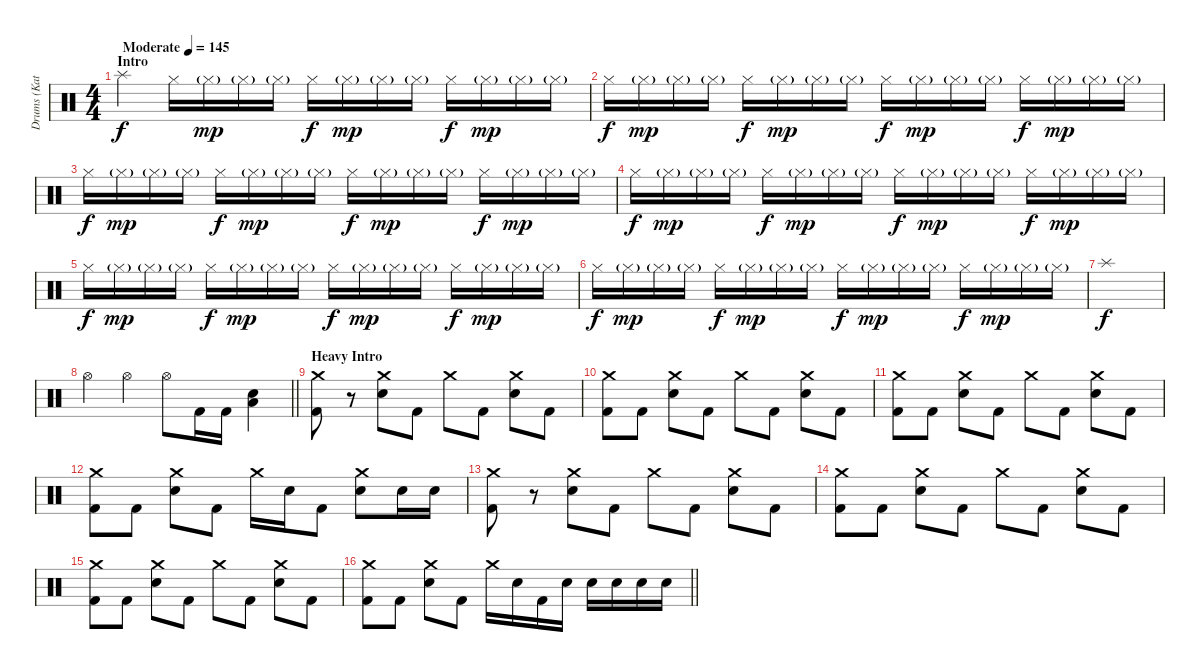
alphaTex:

\track ("Drums (Katsuma)" "Drums (Kat") {instrument percussion}
\staff {score}
\articulation defaults
\ts (4 4)
\section ("" "Intro")
\tempo (145 "Moderate")
\clef neutral
\ks c "Splash (hit)".4{dy f} "Hi-Hat (closed)".16 "Hi-Hat (closed)"{g}.16{dy mp} "Hi-Hat (closed)"{g}.16 "Hi-Hat (closed)"{g}.16 "Hi-Hat (closed)".16{dy f} "Hi-Hat (closed)"{g}.16{dy mp} "Hi-Hat (closed)"{g}.16 "Hi-Hat (closed)"{g}.16 "Hi-Hat (closed)".16{dy f} "Hi-Hat (closed)"{g}.16{dy mp} "Hi-Hat (closed)"{g}.16 "Hi-Hat (closed)"{g}.16
|
"Hi-Hat (closed)".16{dy f} "Hi-Hat (closed)"{g}.16{dy mp} "Hi-Hat (closed)"{g}.16 "Hi-Hat (closed)"{g}.16 "Hi-Hat (closed)".16{dy f} "Hi-Hat (closed)"{g}.16{dy mp} "Hi-Hat (closed)"{g}.16 "Hi-Hat (closed)"{g}.16 "Hi-Hat (closed)".16{dy f} "Hi-Hat (closed)"{g}.16{dy mp} "Hi-Hat (closed)"{g}.16 "Hi-Hat (closed)"{g}.16 "Hi-Hat (closed)".16{dy f} "Hi-Hat (closed)"{g}.16{dy mp} "Hi-Hat (closed)"{g}.16 "Hi-Hat (closed)"{g}.16 |
"Hi-Hat (closed)".16{dy f} "Hi-Hat (closed)"{g}.16{dy mp} "Hi-Hat (closed)"{g}.16 "Hi-Hat (closed)"{g}.16 "Hi-Hat (closed)".16{dy f} "Hi-Hat (closed)"{g}.16{dy mp} "Hi-Hat (closed)"{g}.16 "Hi-Hat (closed)"{g}.16 "Hi-Hat (closed)".16{dy f} "Hi-Hat (closed)"{g}.16{dy mp} "Hi-Hat (closed)"{g}.16 "Hi-Hat (closed)"{g}.16 "Hi-Hat (closed)".16{dy f} "Hi-Hat (closed)"{g}.16{dy mp} "Hi-Hat (closed)"{g}.16 "Hi-Hat (closed)"{g}.16 |
"Hi-Hat (closed)".16{dy f} "Hi-Hat (closed)"{g}.16{dy mp} "Hi-Hat (closed)"{g}.16 "Hi-Hat (closed)"{g}.16 "Hi-Hat (closed)".16{dy f} "Hi-Hat (closed)"{g}.16{dy mp} "Hi-Hat (closed)"{g}.16 "Hi-Hat (closed)"{g}.16 "Hi-Hat (closed)".16{dy f} "Hi-Hat (closed)"{g}.16{dy mp} "Hi-Hat (closed)"{g}.16 "Hi-Hat (closed)"{g}.16 "Hi-Hat (closed)".16{dy f} "Hi-Hat (closed)"{g}.16{dy mp} "Hi-Hat (closed)"{g}.16 "Hi-Hat (closed)"{g}.16 |
"Hi-Hat (closed)".16{dy f} "Hi-Hat (closed)"{g}.16{dy mp} "Hi-Hat (closed)"{g}.16 "Hi-Hat (closed)"{g}.16 "Hi-Hat (closed)".16{dy f} "Hi-Hat (closed)"{g}.16{dy mp} "Hi-Hat (closed)"{g}.16 "Hi-Hat (closed)"{g}.16 "Hi-Hat (closed)".16{dy f} "Hi-Hat (closed)"{g}.16{dy mp} "Hi-Hat (closed)"{g}.16 "Hi-Hat (closed)"{g}.16 "Hi-Hat (closed)".16{dy f} "Hi-Hat (closed)"{g}.16{dy mp} "Hi-Hat (closed)"{g}.16 "Hi-Hat (closed)"{g}.16 |
"Hi-Hat (closed)".16{dy f} "Hi-Hat (closed)"{g}.16{dy mp} "Hi-Hat (closed)"{g}.16 "Hi-Hat (closed)"{g}.16 "Hi-Hat (closed)".16{dy f} "Hi-Hat (closed)"{g}.16{dy mp} "Hi-Hat (closed)"{g}.16 "Hi-Hat (closed)"{g}.16 "Hi-Hat (closed)".16{dy f} "Hi-Hat (closed)"{g}.16{dy mp} "Hi-Hat (closed)"{g}.16 "Hi-Hat (closed)"{g}.16 "Hi-Hat (closed)".16{dy f} "Hi-Hat (closed)"{g}.16{dy mp} "Hi-Hat (closed)"{g}.16 "Hi-Hat (closed)"{g}.16 |
"Splash (hit)".1{dy f} |
\barLineRight lightlight "Hi-Hat (open)".4 "Hi-Hat (open)".4 "Hi-Hat (open)".8 "Kick (hit) 2".16 "Kick (hit) 2".16
("Electric Snare (hit)" "Low Tom (hit)").4 |
\section ("" "Heavy Intro")
("Crash medium (hit)" "Kick (hit) 2").8 r.8 ("Crash medium (hit)" "Electric Snare (hit)").8 "Kick (hit) 2".8 "Crash medium (hit)".8 "Kick (hit) 2".8 ("Crash medium (hit)" "Electric Snare (hit)").8 "Kick (hit) 2".8 |
("Crash medium (hit)" "Kick (hit) 2").8 "Kick (hit) 2".8 ("Crash medium (hit)" "Electric Snare (hit)").8 "Kick (hit) 2".8 "Crash medium (hit)".8 "Kick (hit) 2".8 ("Crash medium (hit)" "Electric Snare (hit)").8 "Kick (hit) 2".8 |
("Crash medium (hit)" "Kick (hit) 2").8 "Kick (hit) 2".8 ("Crash medium (hit)" "Electric Snare (hit)").8 "Kick (hit) 2".8 "Crash medium (hit)".8 "Kick (hit) 2".8 ("Crash medium (hit)" "Electric Snare (hit)").8 "Kick (hit) 2".8 |
("Crash medium (hit)" "Kick (hit) 2").8 "Kick (hit) 2".8 ("Crash medium (hit)" "Electric Snare (hit)").8 "Kick (hit) 2".8 "Crash medium (hit)".16 "Electric Snare (hit)".16 "Kick (hit) 2".8 ("Crash medium (hit)" "Electric Snare (hit)").8 "Electric Snare (hit)".16 "Electric Snare (hit)".16 |
("Crash medium (hit)" "Kick (hit) 2").8 r.8 ("Crash medium (hit)" "Electric Snare (hit)").8 "Kick (hit) 2".8 "Crash medium (hit)".8 "Kick (hit) 2".8 ("Crash medium (hit)" "Electric Snare (hit)").8 "Kick (hit) 2".8 |
("Crash medium (hit)" "Kick (hit) 2").8 "Kick (hit) 2".8 ("Crash medium (hit)" "Electric Snare (hit)").8 "Kick (hit) 2".8 "Crash medium (hit)".8 "Kick (hit) 2".8 ("Crash medium (hit)" "Electric Snare (hit)").8 "Kick (hit) 2".8 |
("Crash medium (hit)" "Kick (hit) 2").8 "Kick (hit) 2".8 ("Crash medium (hit)" "Electric Snare (hit)").8 "Kick (hit) 2".8 "Crash medium (hit)".8 "Kick (hit) 2".8 ("Crash medium (hit)" "Electric Snare (hit)").8 "Kick (hit) 2".8 |
\barLineRight lightlight
("Crash medium (hit)" "Kick (hit) 2").8 "Kick (hit) 2".8 ("Crash medium (hit)" "Electric Snare (hit)").8 "Kick (hit) 2".8 "Crash medium (hit)".16 "Electric Snare (hit)".16 "Kick (hit) 2".16 "Electric Snare (hit)".16 "Electric Snare (hit)".16 "Electric Snare (hit)".16 "Electric Snare (hit)".16 "Electric Snare (hit)".16
